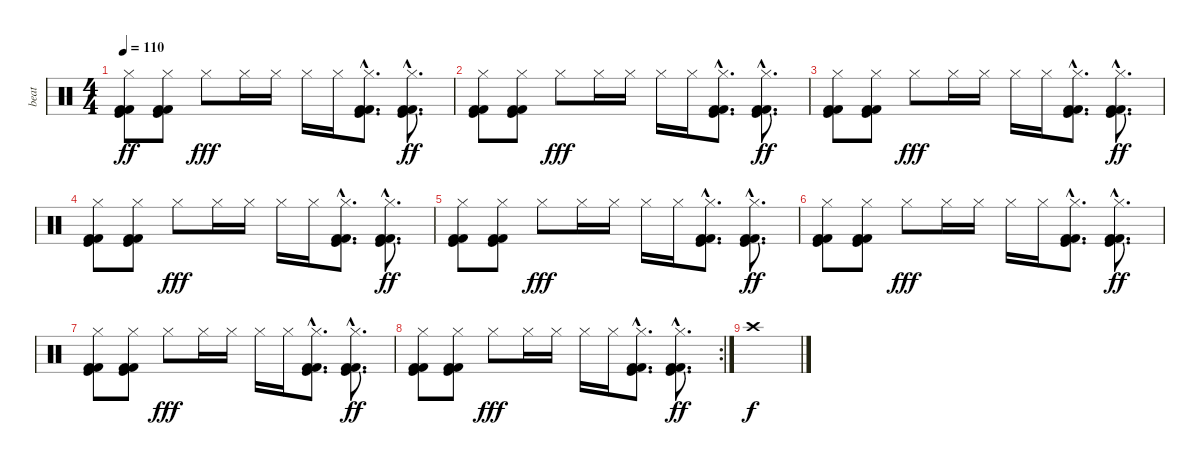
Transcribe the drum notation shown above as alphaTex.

\track ("beat" "beat") {instrument percussion}
\staff {score}
\articulation defaults
\ts (4 4)
\tempo 110
\clef neutral
\ks c
("Kick (hit)" "Kick (hit) 2" "Kick (hit) 2" "Hi-Hat (closed)").8{dy ff} ("Kick (hit)" "Kick (hit) 2" "Kick (hit) 2" "Hi-Hat (closed)").8 "Hi-Hat (closed)".8{dy fff} "Hi-Hat (closed)".16 "Hi-Hat (closed)".16 "Hi-Hat (closed)".16 "Hi-Hat (closed)".16 ("Kick (hit)"{hac} "Kick (hit) 2"{hac} "Kick (hit) 2"{hac} "Hi-Hat (closed)"{hac}).8{d} ("Kick (hit)"{hac} "Kick (hit) 2"{hac} "Kick (hit) 2"{hac} "Hi-Hat (closed)"{hac}).8{d dy ff} |
("Kick (hit)" "Kick (hit) 2" "Kick (hit) 2" "Hi-Hat (closed)").8 ("Kick (hit)" "Kick (hit) 2" "Kick (hit) 2" "Hi-Hat (closed)").8 "Hi-Hat (closed)".8{dy fff} "Hi-Hat (closed)".16 "Hi-Hat (closed)".16 "Hi-Hat (closed)".16 "Hi-Hat (closed)".16 ("Kick (hit)"{hac} "Kick (hit) 2"{hac} "Kick (hit) 2"{hac} "Hi-Hat (closed)"{hac}).8{d} ("Kick (hit)"{hac} "Kick (hit) 2"{hac} "Kick (hit) 2"{hac} "Hi-Hat (closed)"{hac}).8{d dy ff} |
("Kick (hit)" "Kick (hit) 2" "Kick (hit) 2" "Hi-Hat (closed)").8 ("Kick (hit)" "Kick (hit) 2" "Kick (hit) 2" "Hi-Hat (closed)").8 "Hi-Hat (closed)".8{dy fff} "Hi-Hat (closed)".16 "Hi-Hat (closed)".16 "Hi-Hat (closed)".16 "Hi-Hat (closed)".16 ("Kick (hit)"{hac} "Kick (hit) 2"{hac} "Kick (hit) 2"{hac} "Hi-Hat (closed)"{hac}).8{d} ("Kick (hit)"{hac} "Kick (hit) 2"{hac} "Kick (hit) 2"{hac} "Hi-Hat (closed)"{hac}).8{d dy ff} |
("Kick (hit)" "Kick (hit) 2" "Kick (hit) 2" "Hi-Hat (closed)").8 ("Kick (hit)" "Kick (hit) 2" "Kick (hit) 2" "Hi-Hat (closed)").8 "Hi-Hat (closed)".8{dy fff} "Hi-Hat (closed)".16 "Hi-Hat (closed)".16 "Hi-Hat (closed)".16 "Hi-Hat (closed)".16 ("Kick (hit)"{hac} "Kick (hit) 2"{hac} "Kick (hit) 2"{hac} "Hi-Hat (closed)"{hac}).8{d} ("Kick (hit)"{hac} "Kick (hit) 2"{hac} "Kick (hit) 2"{hac} "Hi-Hat (closed)"{hac}).8{d dy ff} |
("Kick (hit)" "Kick (hit) 2" "Kick (hit) 2" "Hi-Hat (closed)").8 ("Kick (hit)" "Kick (hit) 2" "Kick (hit) 2" "Hi-Hat (closed)").8 "Hi-Hat (closed)".8{dy fff} "Hi-Hat (closed)".16 "Hi-Hat (closed)".16 "Hi-Hat (closed)".16 "Hi-Hat (closed)".16 ("Kick (hit)"{hac} "Kick (hit) 2"{hac} "Kick (hit) 2"{hac} "Hi-Hat (closed)"{hac}).8{d} ("Kick (hit)"{hac} "Kick (hit) 2"{hac} "Kick (hit) 2"{hac} "Hi-Hat (closed)"{hac}).8{d dy ff} |
("Kick (hit)" "Kick (hit) 2" "Kick (hit) 2" "Hi-Hat (closed)").8 ("Kick (hit)" "Kick (hit) 2" "Kick (hit) 2" "Hi-Hat (closed)").8 "Hi-Hat (closed)".8{dy fff} "Hi-Hat (closed)".16 "Hi-Hat (closed)".16 "Hi-Hat (closed)".16 "Hi-Hat (closed)".16 ("Kick (hit)"{hac} "Kick (hit) 2"{hac} "Kick (hit) 2"{hac} "Hi-Hat (closed)"{hac}).8{d} ("Kick (hit)"{hac} "Kick (hit) 2"{hac} "Kick (hit) 2"{hac} "Hi-Hat (closed)"{hac}).8{d dy ff} |
("Kick (hit)" "Kick (hit) 2" "Kick (hit) 2" "Hi-Hat (closed)").8 ("Kick (hit)" "Kick (hit) 2" "Kick (hit) 2" "Hi-Hat (closed)").8 "Hi-Hat (closed)".8{dy fff} "Hi-Hat (closed)".16 "Hi-Hat (closed)".16 "Hi-Hat (closed)".16 "Hi-Hat (closed)".16 ("Kick (hit)"{hac} "Kick (hit) 2"{hac} "Kick (hit) 2"{hac} "Hi-Hat (closed)"{hac}).8{d} ("Kick (hit)"{hac} "Kick (hit) 2"{hac} "Kick (hit) 2"{hac} "Hi-Hat (closed)"{hac}).8{d dy ff} |
\rc 2
("Kick (hit)" "Kick (hit) 2" "Kick (hit) 2" "Hi-Hat (closed)").8 ("Kick (hit)" "Kick (hit) 2" "Kick (hit) 2" "Hi-Hat (closed)").8 "Hi-Hat (closed)".8{dy fff} "Hi-Hat (closed)".16 "Hi-Hat (closed)".16 "Hi-Hat (closed)".16 "Hi-Hat (closed)".16 ("Kick (hit)"{hac} "Kick (hit) 2"{hac} "Kick (hit) 2"{hac} "Hi-Hat (closed)"{hac}).8{d} ("Kick (hit)"{hac} "Kick (hit) 2"{hac} "Kick (hit) 2"{hac} "Hi-Hat (closed)"{hac}).8{d dy ff} |
"Crash high (hit)".1{dy f}
